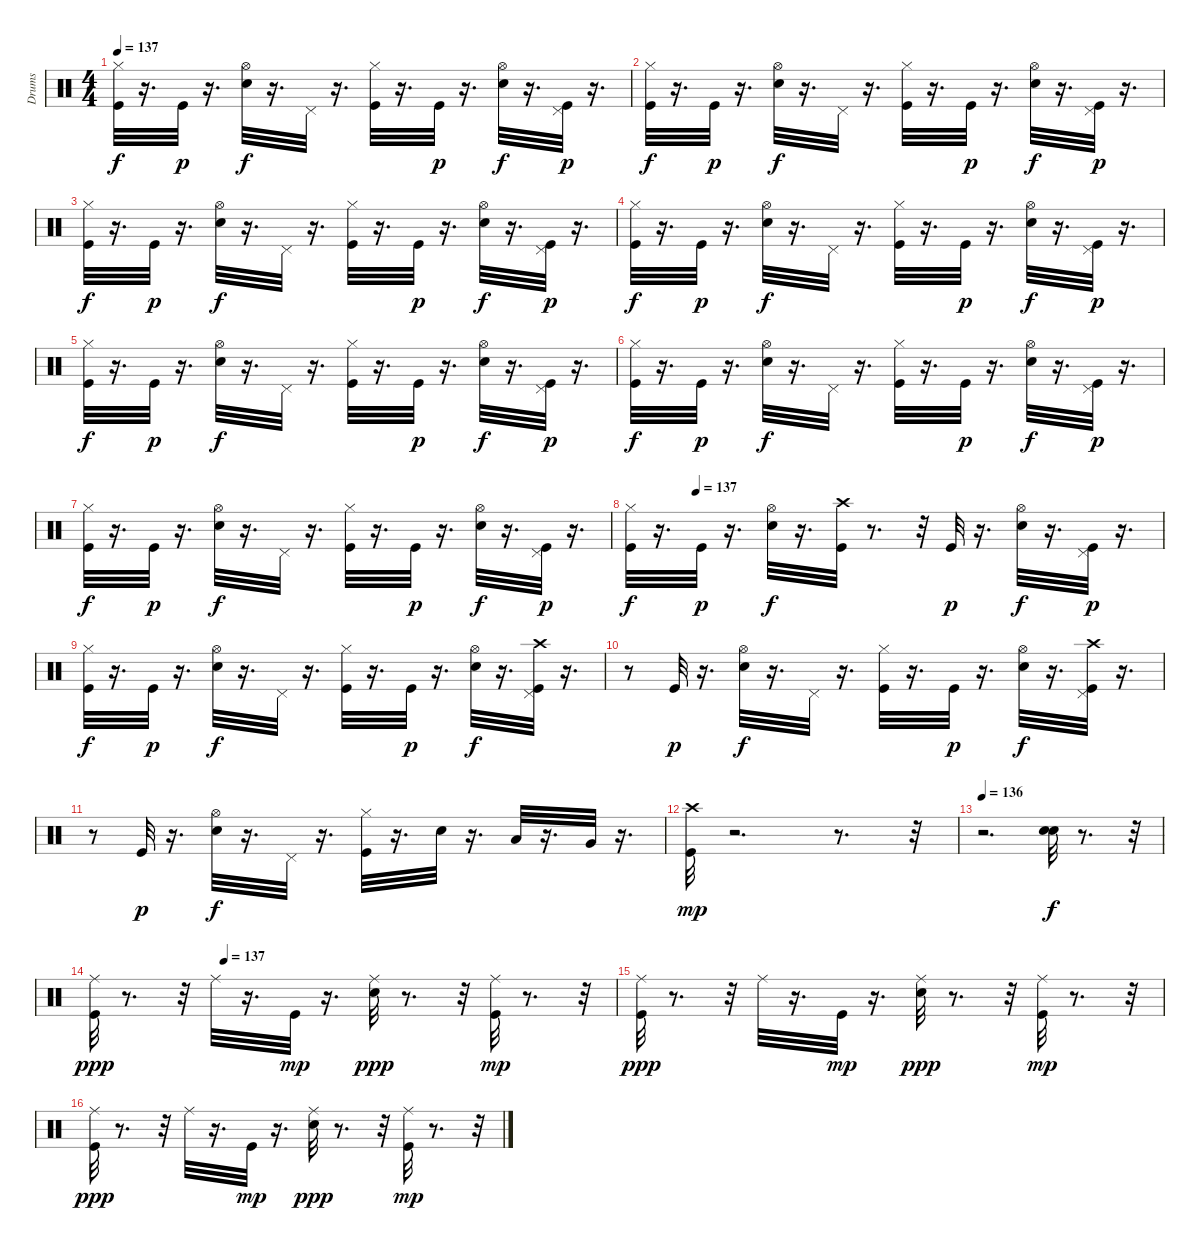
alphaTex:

\track ("Drums" "Drums") {instrument percussion}
\staff {score}
\articulation defaults
\ts (4 4)
\tempo 137
\clef neutral
\ks c
("Hi-Hat (closed)" "Kick (hit)").32{dy f} r.16{d} "Kick (hit)".32{dy p} r.16{d} ("Hi-Hat (open)" "Snare (hit) 2").32{dy f} r.16{d} "Pedal Hi-Hat (hit)".32 r.16{d} ("Kick (hit)" "Hi-Hat (closed)").32 r.16{d} "Kick (hit)".32{dy p} r.16{d} ("Snare (hit) 2" "Hi-Hat (open)").32{dy f} r.16{d} ("Kick (hit)" "Pedal Hi-Hat (hit)").32{dy p} r.16{d} |
("Hi-Hat (closed)" "Kick (hit)").32{dy f} r.16{d} "Kick (hit)".32{dy p} r.16{d} ("Hi-Hat (open)" "Snare (hit) 2").32{dy f} r.16{d} "Pedal Hi-Hat (hit)".32 r.16{d} ("Kick (hit)" "Hi-Hat (closed)").32 r.16{d} "Kick (hit)".32{dy p} r.16{d} ("Snare (hit) 2" "Hi-Hat (open)").32{dy f} r.16{d} ("Kick (hit)" "Pedal Hi-Hat (hit)").32{dy p} r.16{d} |
("Hi-Hat (closed)" "Kick (hit)").32{dy f} r.16{d} "Kick (hit)".32{dy p} r.16{d} ("Hi-Hat (open)" "Snare (hit) 2").32{dy f} r.16{d} "Pedal Hi-Hat (hit)".32 r.16{d} ("Kick (hit)" "Hi-Hat (closed)").32 r.16{d} "Kick (hit)".32{dy p} r.16{d} ("Snare (hit) 2" "Hi-Hat (open)").32{dy f} r.16{d} ("Kick (hit)" "Pedal Hi-Hat (hit)").32{dy p} r.16{d} |
("Hi-Hat (closed)" "Kick (hit)").32{dy f} r.16{d} "Kick (hit)".32{dy p} r.16{d} ("Hi-Hat (open)" "Snare (hit) 2").32{dy f} r.16{d} "Pedal Hi-Hat (hit)".32 r.16{d} ("Kick (hit)" "Hi-Hat (closed)").32 r.16{d} "Kick (hit)".32{dy p} r.16{d} ("Snare (hit) 2" "Hi-Hat (open)").32{dy f} r.16{d} ("Kick (hit)" "Pedal Hi-Hat (hit)").32{dy p} r.16{d} |
("Hi-Hat (closed)" "Kick (hit)").32{dy f} r.16{d} "Kick (hit)".32{dy p} r.16{d} ("Hi-Hat (open)" "Snare (hit) 2").32{dy f} r.16{d} "Pedal Hi-Hat (hit)".32 r.16{d} ("Kick (hit)" "Hi-Hat (closed)").32 r.16{d} "Kick (hit)".32{dy p} r.16{d} ("Snare (hit) 2" "Hi-Hat (open)").32{dy f} r.16{d} ("Kick (hit)" "Pedal Hi-Hat (hit)").32{dy p} r.16{d} |
("Hi-Hat (closed)" "Kick (hit)").32{dy f} r.16{d} "Kick (hit)".32{dy p} r.16{d} ("Hi-Hat (open)" "Snare (hit) 2").32{dy f} r.16{d} "Pedal Hi-Hat (hit)".32 r.16{d} ("Kick (hit)" "Hi-Hat (closed)").32 r.16{d} "Kick (hit)".32{dy p} r.16{d} ("Snare (hit) 2" "Hi-Hat (open)").32{dy f} r.16{d} ("Kick (hit)" "Pedal Hi-Hat (hit)").32{dy p} r.16{d} |
("Hi-Hat (closed)" "Kick (hit)").32{dy f} r.16{d} "Kick (hit)".32{dy p} r.16{d} ("Hi-Hat (open)" "Snare (hit) 2").32{dy f} r.16{d} "Pedal Hi-Hat (hit)".32 r.16{d} ("Kick (hit)" "Hi-Hat (closed)").32 r.16{d} "Kick (hit)".32{dy p} r.16{d} ("Snare (hit) 2" "Hi-Hat (open)").32{dy f} r.16{d} ("Kick (hit)" "Pedal Hi-Hat (hit)").32{dy p} r.16{d} |
\tempo (137 0.125)
("Hi-Hat (closed)" "Kick (hit)").32{dy f} r.16{d} "Kick (hit)".32{dy p} r.16{d} ("Hi-Hat (open)" "Snare (hit) 2").32{dy f} r.16{d} ("Kick (hit)" "Crash high (hit)").32 r.8{d} r.32 "Kick (hit)".32{dy p} r.16{d} ("Snare (hit) 2" "Hi-Hat (open)").32{dy f} r.16{d} ("Kick (hit)" "Pedal Hi-Hat (hit)").32{dy p} r.16{d} |
("Hi-Hat (closed)" "Kick (hit)").32{dy f} r.16{d} "Kick (hit)".32{dy p} r.16{d} ("Hi-Hat (open)" "Snare (hit) 2").32{dy f} r.16{d} "Pedal Hi-Hat (hit)".32 r.16{d} ("Kick (hit)" "Hi-Hat (closed)").32 r.16{d} "Kick (hit)".32{dy p} r.16{d} ("Snare (hit) 2" "Hi-Hat (open)").32{dy f} r.16{d} ("Kick (hit)" "Pedal Hi-Hat (hit)" "Crash high (hit)").32 r.16{d} |
r.8 "Kick (hit)".32{dy p} r.16{d} ("Hi-Hat (open)" "Snare (hit) 2").32{dy f} r.16{d} "Pedal Hi-Hat (hit)".32 r.16{d} ("Kick (hit)" "Hi-Hat (closed)").32 r.16{d} "Kick (hit)".32{dy p} r.16{d} ("Snare (hit) 2" "Hi-Hat (open)").32{dy f} r.16{d} ("Kick (hit)" "Pedal Hi-Hat (hit)" "Crash high (hit)").32 r.16{d} |
r.8 "Kick (hit)".32{dy p} r.16{d} ("Hi-Hat (open)" "Snare (hit) 2").32{dy f} r.16{d} "Pedal Hi-Hat (hit)".32 r.16{d} ("Kick (hit)" "Hi-Hat (closed)").32 r.16{d} "Snare (hit) 2".32 r.16{d} "Low Tom (hit)".32 r.16{d} "Very Low Tom (hit)".32 r.16{d} |
("Crash high (hit)" "Kick (hit)").32{dy mp} r.2{d} r.8{d} r.32 |
\tempo 136
r.2{d} ("Electric Snare (hit)" "Snare (hit) 2").32{dy f} r.8{d} r.32 |
\tempo (137 0.25)
("Ride (middle)" "Kick (hit)").32{dy ppp} r.8{d} r.32 "Ride (middle)".32 r.16{d} "Kick (hit)".32{dy mp} r.16{d} ("Ride (middle)" "Snare (hit) 2").32{dy ppp} r.8{d} r.32 ("Ride (middle)" "Kick (hit)").32{dy mp} r.8{d} r.32 |
("Ride (middle)" "Kick (hit)").32{dy ppp} r.8{d} r.32 "Ride (middle)".32 r.16{d} "Kick (hit)".32{dy mp} r.16{d} ("Ride (middle)" "Snare (hit) 2").32{dy ppp} r.8{d} r.32 ("Ride (middle)" "Kick (hit)").32{dy mp} r.8{d} r.32 |
("Ride (middle)" "Kick (hit)").32{dy ppp} r.8{d} r.32 "Ride (middle)".32 r.16{d} "Kick (hit)".32{dy mp} r.16{d} ("Ride (middle)" "Snare (hit) 2").32{dy ppp} r.8{d} r.32 ("Ride (middle)" "Kick (hit)").32{dy mp} r.8{d} r.32
